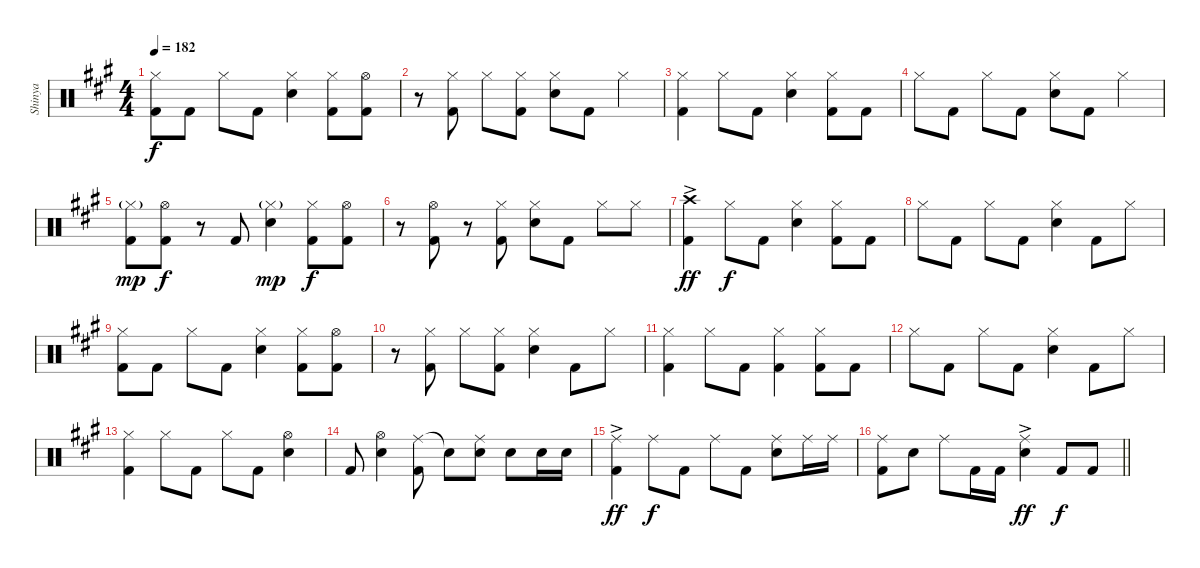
\track ("Shinya" "Shinya") {instrument percussion}
\staff {score}
\articulation defaults
\ts (4 4)
\tempo 182
\clef neutral
\ks a
("Hi-Hat (closed)" "Kick (hit) 2").8{dy f} "Kick (hit) 2".8 "Hi-Hat (closed)".8 "Kick (hit) 2".8 ("Hi-Hat (closed)" "Snare (hit) 2").4 ("Hi-Hat (closed)" "Kick (hit) 2").8 ("Hi-Hat (open)" "Kick (hit) 2").8 |
r.8 ("Hi-Hat (closed)" "Kick (hit) 2").8 "Hi-Hat (closed)".8 ("Hi-Hat (closed)" "Kick (hit) 2").8 ("Hi-Hat (closed)" "Snare (hit) 2").8 "Kick (hit) 2".8 "Hi-Hat (closed)".4 |
("Hi-Hat (closed)" "Kick (hit) 2").4 "Hi-Hat (closed)".8 "Kick (hit) 2".8 ("Hi-Hat (closed)" "Snare (hit) 2").4 ("Hi-Hat (closed)" "Kick (hit) 2").8 "Kick (hit) 2".8 |
"Hi-Hat (closed)".8 "Kick (hit) 2".8 "Hi-Hat (closed)".8 "Kick (hit) 2".8 ("Hi-Hat (closed)" "Snare (hit) 2").8 "Kick (hit) 2".8 "Hi-Hat (closed)".4 |
("Hi-Hat (closed)"{g} "Kick (hit) 2").8{dy mp} ("Hi-Hat (open)" "Kick (hit) 2").8{dy f} r.8 "Kick (hit) 2".8 ("Hi-Hat (closed)"{g} "Snare (hit) 2").4{dy mp} ("Hi-Hat (closed)" "Kick (hit) 2").8{dy f} ("Hi-Hat (open)" "Kick (hit) 2").8 |
r.8 ("Hi-Hat (open)" "Kick (hit) 2").8 r.8 ("Hi-Hat (closed)" "Kick (hit) 2").8 ("Hi-Hat (closed)" "Snare (hit) 2").8 "Kick (hit) 2".8 "Hi-Hat (closed)".8 "Hi-Hat (closed)".8 |
("Crash high (hit)"{ac} "Kick (hit) 2").4{dy ff} "Hi-Hat (closed)".8{dy f} "Kick (hit) 2".8 ("Hi-Hat (closed)" "Snare (hit) 2").4 ("Hi-Hat (closed)" "Kick (hit) 2").8 "Kick (hit) 2".8 |
"Hi-Hat (closed)".8 "Kick (hit) 2".8 "Hi-Hat (closed)".8 "Kick (hit) 2".8 ("Hi-Hat (closed)" "Snare (hit) 2").4 "Kick (hit) 2".8 "Hi-Hat (closed)".8 |
("Hi-Hat (closed)" "Kick (hit) 2").8 "Kick (hit) 2".8 "Hi-Hat (closed)".8 "Kick (hit) 2".8 ("Hi-Hat (closed)" "Snare (hit) 2").4 ("Hi-Hat (closed)" "Kick (hit) 2").8 ("Hi-Hat (open)" "Kick (hit) 2").8 |
r.8 ("Hi-Hat (closed)" "Kick (hit) 2").8 "Hi-Hat (closed)".8 ("Hi-Hat (closed)" "Kick (hit) 2").8 ("Hi-Hat (closed)" "Snare (hit) 2").4 "Kick (hit) 2".8 "Hi-Hat (closed)".8 |
("Hi-Hat (closed)" "Kick (hit) 2").4 "Hi-Hat (closed)".8 "Kick (hit) 2".8 ("Hi-Hat (closed)" "Kick (hit) 2").4 ("Hi-Hat (closed)" "Kick (hit) 2").8 "Kick (hit) 2".8 |
"Hi-Hat (closed)".8 "Kick (hit) 2".8 "Hi-Hat (closed)".8 "Kick (hit) 2".8 ("Hi-Hat (closed)" "Snare (hit) 2").4 "Kick (hit) 2".8 "Hi-Hat (closed)".8 |
("Hi-Hat (closed)" "Kick (hit) 2").4 "Hi-Hat (closed)".8 "Kick (hit) 2".8 "Hi-Hat (closed)".8 "Kick (hit) 2".8 ("Hi-Hat (open)" "Snare (hit) 2").4 |
"Kick (hit) 2".8 ("Hi-Hat (open)" "Snare (hit) 2").4 ("Ride (middle)" "Kick (hit) 2").8 "Snare (hit)"{t}.8 ("Ride (middle)" "Snare (hit) 2").8 "Snare (hit) 2".8 "Snare (hit) 2".16 "Snare (hit) 2".16 |
("Ride (middle)"{ac} "Kick (hit) 2").4{dy ff} "Ride (middle)".8{dy f} "Kick (hit) 2".8 "Ride (middle)".8 "Kick (hit) 2".8 ("Ride (middle)" "Snare (hit) 2").8 "Ride (middle)".16 "Ride (middle)".16 |
\barLineRight lightlight
("Ride (middle)" "Kick (hit) 2").8 "Snare (hit) 2".8 "Ride (middle)".8 "Kick (hit) 2".16 "Kick (hit) 2".16 ("Ride (middle)"{ac} "Snare (hit) 2").4{dy ff} "Kick (hit) 2".8{dy f} "Kick (hit) 2".8
